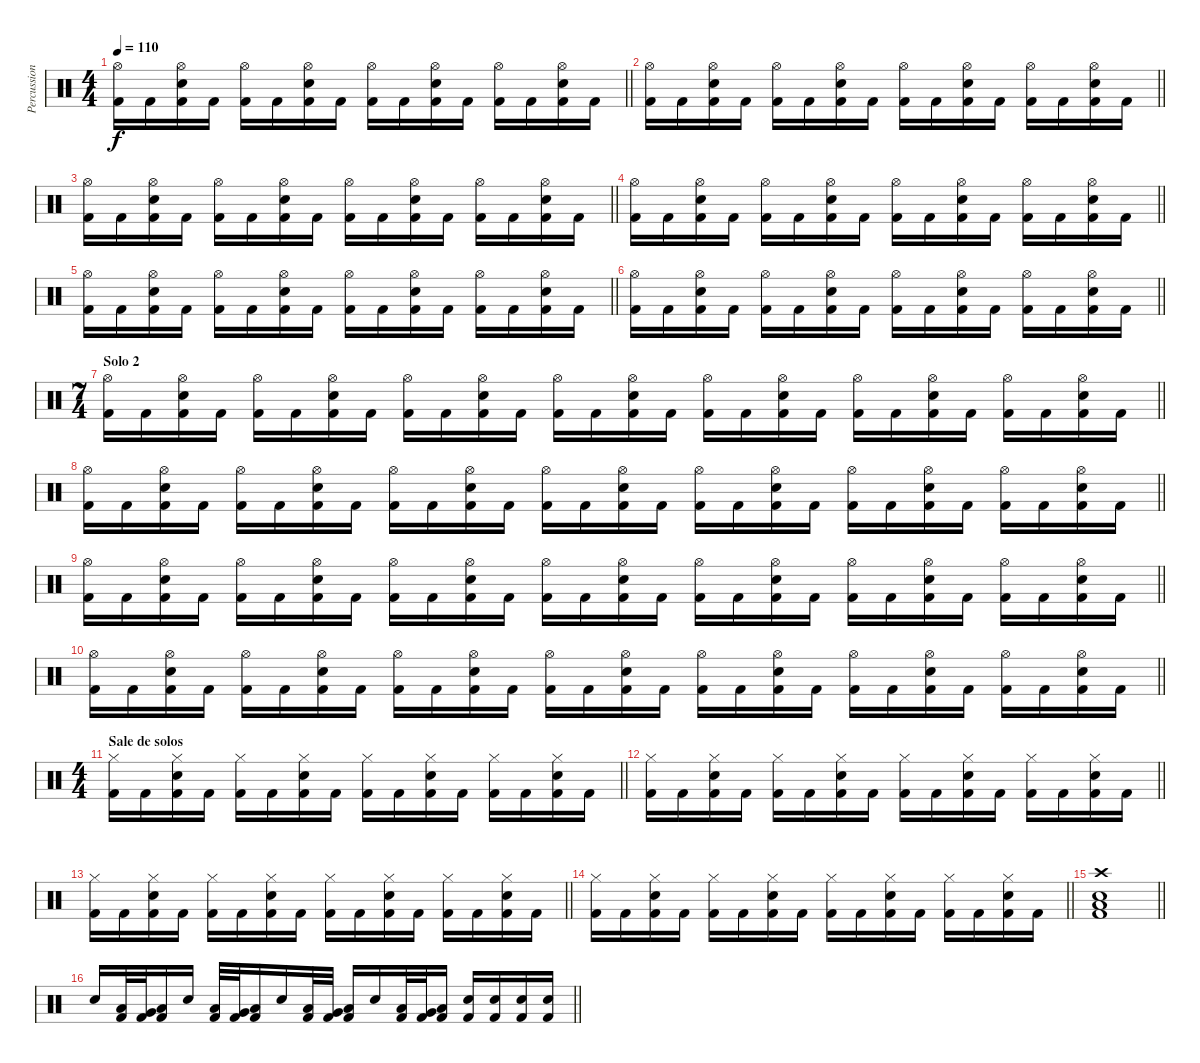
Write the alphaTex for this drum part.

\track ("Percussion" "Percussion") {instrument percussion}
\staff {score}
\articulation defaults
\ts (4 4)
\tempo 110
\clef neutral
\barLineRight lightlight
\ks c
("Hi-Hat (open)" "Kick (hit) 2").16{dy f} "Kick (hit) 2".16 ("Hi-Hat (open)" "Electric Snare (hit)" "Kick (hit) 2").16 "Kick (hit) 2".16 ("Hi-Hat (open)" "Kick (hit) 2").16 "Kick (hit) 2".16 ("Hi-Hat (open)" "Electric Snare (hit)" "Kick (hit) 2").16 "Kick (hit) 2".16 ("Hi-Hat (open)" "Kick (hit) 2").16 "Kick (hit) 2".16 ("Hi-Hat (open)" "Electric Snare (hit)" "Kick (hit) 2").16 "Kick (hit) 2".16 ("Hi-Hat (open)" "Kick (hit) 2").16 "Kick (hit) 2".16 ("Hi-Hat (open)" "Electric Snare (hit)" "Kick (hit) 2").16 "Kick (hit) 2".16 |
\barLineRight lightlight
("Hi-Hat (open)" "Kick (hit) 2").16 "Kick (hit) 2".16 ("Hi-Hat (open)" "Electric Snare (hit)" "Kick (hit) 2").16 "Kick (hit) 2".16 ("Hi-Hat (open)" "Kick (hit) 2").16 "Kick (hit) 2".16 ("Hi-Hat (open)" "Electric Snare (hit)" "Kick (hit) 2").16 "Kick (hit) 2".16 ("Hi-Hat (open)" "Kick (hit) 2").16 "Kick (hit) 2".16 ("Hi-Hat (open)" "Electric Snare (hit)" "Kick (hit) 2").16 "Kick (hit) 2".16 ("Hi-Hat (open)" "Kick (hit) 2").16 "Kick (hit) 2".16 ("Hi-Hat (open)" "Electric Snare (hit)" "Kick (hit) 2").16 "Kick (hit) 2".16 |
\barLineRight lightlight
("Hi-Hat (open)" "Kick (hit) 2").16 "Kick (hit) 2".16 ("Hi-Hat (open)" "Electric Snare (hit)" "Kick (hit) 2").16 "Kick (hit) 2".16 ("Hi-Hat (open)" "Kick (hit) 2").16 "Kick (hit) 2".16 ("Hi-Hat (open)" "Electric Snare (hit)" "Kick (hit) 2").16 "Kick (hit) 2".16 ("Hi-Hat (open)" "Kick (hit) 2").16 "Kick (hit) 2".16 ("Hi-Hat (open)" "Electric Snare (hit)" "Kick (hit) 2").16 "Kick (hit) 2".16 ("Hi-Hat (open)" "Kick (hit) 2").16 "Kick (hit) 2".16 ("Hi-Hat (open)" "Electric Snare (hit)" "Kick (hit) 2").16 "Kick (hit) 2".16 |
\barLineRight lightlight
("Hi-Hat (open)" "Kick (hit) 2").16 "Kick (hit) 2".16 ("Hi-Hat (open)" "Electric Snare (hit)" "Kick (hit) 2").16 "Kick (hit) 2".16 ("Hi-Hat (open)" "Kick (hit) 2").16 "Kick (hit) 2".16 ("Hi-Hat (open)" "Electric Snare (hit)" "Kick (hit) 2").16 "Kick (hit) 2".16 ("Hi-Hat (open)" "Kick (hit) 2").16 "Kick (hit) 2".16 ("Hi-Hat (open)" "Electric Snare (hit)" "Kick (hit) 2").16 "Kick (hit) 2".16 ("Hi-Hat (open)" "Kick (hit) 2").16 "Kick (hit) 2".16 ("Hi-Hat (open)" "Electric Snare (hit)" "Kick (hit) 2").16 "Kick (hit) 2".16 |
\barLineRight lightlight
("Hi-Hat (open)" "Kick (hit) 2").16 "Kick (hit) 2".16 ("Hi-Hat (open)" "Electric Snare (hit)" "Kick (hit) 2").16 "Kick (hit) 2".16 ("Hi-Hat (open)" "Kick (hit) 2").16 "Kick (hit) 2".16 ("Hi-Hat (open)" "Electric Snare (hit)" "Kick (hit) 2").16 "Kick (hit) 2".16 ("Hi-Hat (open)" "Kick (hit) 2").16 "Kick (hit) 2".16 ("Hi-Hat (open)" "Electric Snare (hit)" "Kick (hit) 2").16 "Kick (hit) 2".16 ("Hi-Hat (open)" "Kick (hit) 2").16 "Kick (hit) 2".16 ("Hi-Hat (open)" "Electric Snare (hit)" "Kick (hit) 2").16 "Kick (hit) 2".16 |
\barLineRight lightlight
("Hi-Hat (open)" "Kick (hit) 2").16 "Kick (hit) 2".16 ("Hi-Hat (open)" "Electric Snare (hit)" "Kick (hit) 2").16 "Kick (hit) 2".16 ("Hi-Hat (open)" "Kick (hit) 2").16 "Kick (hit) 2".16 ("Hi-Hat (open)" "Electric Snare (hit)" "Kick (hit) 2").16 "Kick (hit) 2".16 ("Hi-Hat (open)" "Kick (hit) 2").16 "Kick (hit) 2".16 ("Hi-Hat (open)" "Electric Snare (hit)" "Kick (hit) 2").16 "Kick (hit) 2".16 ("Hi-Hat (open)" "Kick (hit) 2").16 "Kick (hit) 2".16 ("Hi-Hat (open)" "Electric Snare (hit)" "Kick (hit) 2").16 "Kick (hit) 2".16 |
\ts (7 4)
\section ("" "Solo 2")
\barLineRight lightlight
("Hi-Hat (open)" "Kick (hit) 2").16 "Kick (hit) 2".16 ("Hi-Hat (open)" "Electric Snare (hit)" "Kick (hit) 2").16 "Kick (hit) 2".16 ("Hi-Hat (open)" "Kick (hit) 2").16 "Kick (hit) 2".16 ("Hi-Hat (open)" "Electric Snare (hit)" "Kick (hit) 2").16 "Kick (hit) 2".16 ("Hi-Hat (open)" "Kick (hit) 2").16 "Kick (hit) 2".16 ("Hi-Hat (open)" "Electric Snare (hit)" "Kick (hit) 2").16 "Kick (hit) 2".16 ("Hi-Hat (open)" "Kick (hit) 2").16 "Kick (hit) 2".16 ("Hi-Hat (open)" "Electric Snare (hit)" "Kick (hit) 2").16 "Kick (hit) 2".16 ("Hi-Hat (open)" "Kick (hit) 2").16 "Kick (hit) 2".16 ("Hi-Hat (open)" "Electric Snare (hit)" "Kick (hit) 2").16 "Kick (hit) 2".16 ("Hi-Hat (open)" "Kick (hit) 2").16 "Kick (hit) 2".16 ("Hi-Hat (open)" "Electric Snare (hit)" "Kick (hit) 2").16 "Kick (hit) 2".16 ("Hi-Hat (open)" "Kick (hit) 2").16 "Kick (hit) 2".16 ("Hi-Hat (open)" "Electric Snare (hit)" "Kick (hit) 2").16 "Kick (hit) 2".16 |
\barLineRight lightlight
("Hi-Hat (open)" "Kick (hit) 2").16 "Kick (hit) 2".16 ("Hi-Hat (open)" "Electric Snare (hit)" "Kick (hit) 2").16 "Kick (hit) 2".16 ("Hi-Hat (open)" "Kick (hit) 2").16 "Kick (hit) 2".16 ("Hi-Hat (open)" "Electric Snare (hit)" "Kick (hit) 2").16 "Kick (hit) 2".16 ("Hi-Hat (open)" "Kick (hit) 2").16 "Kick (hit) 2".16 ("Hi-Hat (open)" "Electric Snare (hit)" "Kick (hit) 2").16 "Kick (hit) 2".16 ("Hi-Hat (open)" "Kick (hit) 2").16 "Kick (hit) 2".16 ("Hi-Hat (open)" "Electric Snare (hit)" "Kick (hit) 2").16 "Kick (hit) 2".16 ("Hi-Hat (open)" "Kick (hit) 2").16 "Kick (hit) 2".16 ("Hi-Hat (open)" "Electric Snare (hit)" "Kick (hit) 2").16 "Kick (hit) 2".16 ("Hi-Hat (open)" "Kick (hit) 2").16 "Kick (hit) 2".16 ("Hi-Hat (open)" "Electric Snare (hit)" "Kick (hit) 2").16 "Kick (hit) 2".16 ("Hi-Hat (open)" "Kick (hit) 2").16 "Kick (hit) 2".16 ("Hi-Hat (open)" "Electric Snare (hit)" "Kick (hit) 2").16 "Kick (hit) 2".16 |
\barLineRight lightlight
("Hi-Hat (open)" "Kick (hit) 2").16 "Kick (hit) 2".16 ("Hi-Hat (open)" "Electric Snare (hit)" "Kick (hit) 2").16 "Kick (hit) 2".16 ("Hi-Hat (open)" "Kick (hit) 2").16 "Kick (hit) 2".16 ("Hi-Hat (open)" "Electric Snare (hit)" "Kick (hit) 2").16 "Kick (hit) 2".16 ("Hi-Hat (open)" "Kick (hit) 2").16 "Kick (hit) 2".16 ("Hi-Hat (open)" "Electric Snare (hit)" "Kick (hit) 2").16 "Kick (hit) 2".16 ("Hi-Hat (open)" "Kick (hit) 2").16 "Kick (hit) 2".16 ("Hi-Hat (open)" "Electric Snare (hit)" "Kick (hit) 2").16 "Kick (hit) 2".16 ("Hi-Hat (open)" "Kick (hit) 2").16 "Kick (hit) 2".16 ("Hi-Hat (open)" "Electric Snare (hit)" "Kick (hit) 2").16 "Kick (hit) 2".16 ("Hi-Hat (open)" "Kick (hit) 2").16 "Kick (hit) 2".16 ("Hi-Hat (open)" "Electric Snare (hit)" "Kick (hit) 2").16 "Kick (hit) 2".16 ("Hi-Hat (open)" "Kick (hit) 2").16 "Kick (hit) 2".16 ("Hi-Hat (open)" "Electric Snare (hit)" "Kick (hit) 2").16 "Kick (hit) 2".16 |
\barLineRight lightlight
("Hi-Hat (open)" "Kick (hit) 2").16 "Kick (hit) 2".16 ("Hi-Hat (open)" "Electric Snare (hit)" "Kick (hit) 2").16 "Kick (hit) 2".16 ("Hi-Hat (open)" "Kick (hit) 2").16 "Kick (hit) 2".16 ("Hi-Hat (open)" "Electric Snare (hit)" "Kick (hit) 2").16 "Kick (hit) 2".16 ("Hi-Hat (open)" "Kick (hit) 2").16 "Kick (hit) 2".16 ("Hi-Hat (open)" "Electric Snare (hit)" "Kick (hit) 2").16 "Kick (hit) 2".16 ("Hi-Hat (open)" "Kick (hit) 2").16 "Kick (hit) 2".16 ("Hi-Hat (open)" "Electric Snare (hit)" "Kick (hit) 2").16 "Kick (hit) 2".16 ("Hi-Hat (open)" "Kick (hit) 2").16 "Kick (hit) 2".16 ("Hi-Hat (open)" "Electric Snare (hit)" "Kick (hit) 2").16 "Kick (hit) 2".16 ("Hi-Hat (open)" "Kick (hit) 2").16 "Kick (hit) 2".16 ("Hi-Hat (open)" "Electric Snare (hit)" "Kick (hit) 2").16 "Kick (hit) 2".16 ("Hi-Hat (open)" "Kick (hit) 2").16 "Kick (hit) 2".16 ("Hi-Hat (open)" "Electric Snare (hit)" "Kick (hit) 2").16 "Kick (hit) 2".16 |
\ts (4 4)
\section ("" "Sale de solos")
\barLineRight lightlight
("Hi-Hat (closed)" "Kick (hit) 2").16 "Kick (hit) 2".16 ("Hi-Hat (closed)" "Electric Snare (hit)" "Kick (hit) 2").16 "Kick (hit) 2".16 ("Hi-Hat (closed)" "Kick (hit) 2").16 "Kick (hit) 2".16 ("Hi-Hat (closed)" "Electric Snare (hit)" "Kick (hit) 2").16 "Kick (hit) 2".16 ("Hi-Hat (closed)" "Kick (hit) 2").16 "Kick (hit) 2".16 ("Hi-Hat (closed)" "Electric Snare (hit)" "Kick (hit) 2").16 "Kick (hit) 2".16 ("Hi-Hat (closed)" "Kick (hit) 2").16 "Kick (hit) 2".16 ("Hi-Hat (closed)" "Electric Snare (hit)" "Kick (hit) 2").16 "Kick (hit) 2".16 |
\barLineRight lightlight
("Hi-Hat (closed)" "Kick (hit) 2").16 "Kick (hit) 2".16 ("Hi-Hat (closed)" "Electric Snare (hit)" "Kick (hit) 2").16 "Kick (hit) 2".16 ("Hi-Hat (closed)" "Kick (hit) 2").16 "Kick (hit) 2".16 ("Hi-Hat (closed)" "Electric Snare (hit)" "Kick (hit) 2").16 "Kick (hit) 2".16 ("Hi-Hat (closed)" "Kick (hit) 2").16 "Kick (hit) 2".16 ("Hi-Hat (closed)" "Electric Snare (hit)" "Kick (hit) 2").16 "Kick (hit) 2".16 ("Hi-Hat (closed)" "Kick (hit) 2").16 "Kick (hit) 2".16 ("Hi-Hat (closed)" "Electric Snare (hit)" "Kick (hit) 2").16 "Kick (hit) 2".16 |
\barLineRight lightlight
("Hi-Hat (closed)" "Kick (hit) 2").16 "Kick (hit) 2".16 ("Hi-Hat (closed)" "Electric Snare (hit)" "Kick (hit) 2").16 "Kick (hit) 2".16 ("Hi-Hat (closed)" "Kick (hit) 2").16 "Kick (hit) 2".16 ("Hi-Hat (closed)" "Electric Snare (hit)" "Kick (hit) 2").16 "Kick (hit) 2".16 ("Hi-Hat (closed)" "Kick (hit) 2").16 "Kick (hit) 2".16 ("Hi-Hat (closed)" "Electric Snare (hit)" "Kick (hit) 2").16 "Kick (hit) 2".16 ("Hi-Hat (closed)" "Kick (hit) 2").16 "Kick (hit) 2".16 ("Hi-Hat (closed)" "Electric Snare (hit)" "Kick (hit) 2").16 "Kick (hit) 2".16 |
\barLineRight lightlight
("Hi-Hat (closed)" "Kick (hit) 2").16 "Kick (hit) 2".16 ("Hi-Hat (closed)" "Electric Snare (hit)" "Kick (hit) 2").16 "Kick (hit) 2".16 ("Hi-Hat (closed)" "Kick (hit) 2").16 "Kick (hit) 2".16 ("Hi-Hat (closed)" "Electric Snare (hit)" "Kick (hit) 2").16 "Kick (hit) 2".16 ("Hi-Hat (closed)" "Kick (hit) 2").16 "Kick (hit) 2".16 ("Hi-Hat (closed)" "Electric Snare (hit)" "Kick (hit) 2").16 "Kick (hit) 2".16 ("Hi-Hat (closed)" "Kick (hit) 2").16 "Kick (hit) 2".16 ("Hi-Hat (closed)" "Electric Snare (hit)" "Kick (hit) 2").16 "Kick (hit) 2".16 |
\barLineRight lightlight
("Crash high (hit)" "Low Floor Tom (hit)" "Electric Snare (hit)" "Kick (hit) 2").1 |
\barLineRight lightlight "Electric Snare (hit)".16
("Low Tom (hit)" "Kick (hit) 2").32 ("Very Low Tom (hit)" "Kick (hit) 2").32 ("Low Floor Tom (hit)" "Kick (hit) 2").16 "Electric Snare (hit)".16 ("Low Tom (hit)" "Kick (hit) 2").32 ("Very Low Tom (hit)" "Kick (hit) 2").32 ("Low Floor Tom (hit)" "Kick (hit) 2").16 "Electric Snare (hit)".16 ("Low Tom (hit)" "Kick (hit) 2").32 ("Very Low Tom (hit)" "Kick (hit) 2").32 ("Low Floor Tom (hit)" "Kick (hit) 2").16 "Electric Snare (hit)".16 ("Low Tom (hit)" "Kick (hit) 2").32 ("Very Low Tom (hit)" "Kick (hit) 2").32 ("Low Floor Tom (hit)" "Kick (hit) 2").16 ("Electric Snare (hit)" "Kick (hit) 2").16 ("Electric Snare (hit)" "Kick (hit) 2").16 ("Electric Snare (hit)" "Kick (hit) 2").16 ("Electric Snare (hit)" "Kick (hit) 2").16
